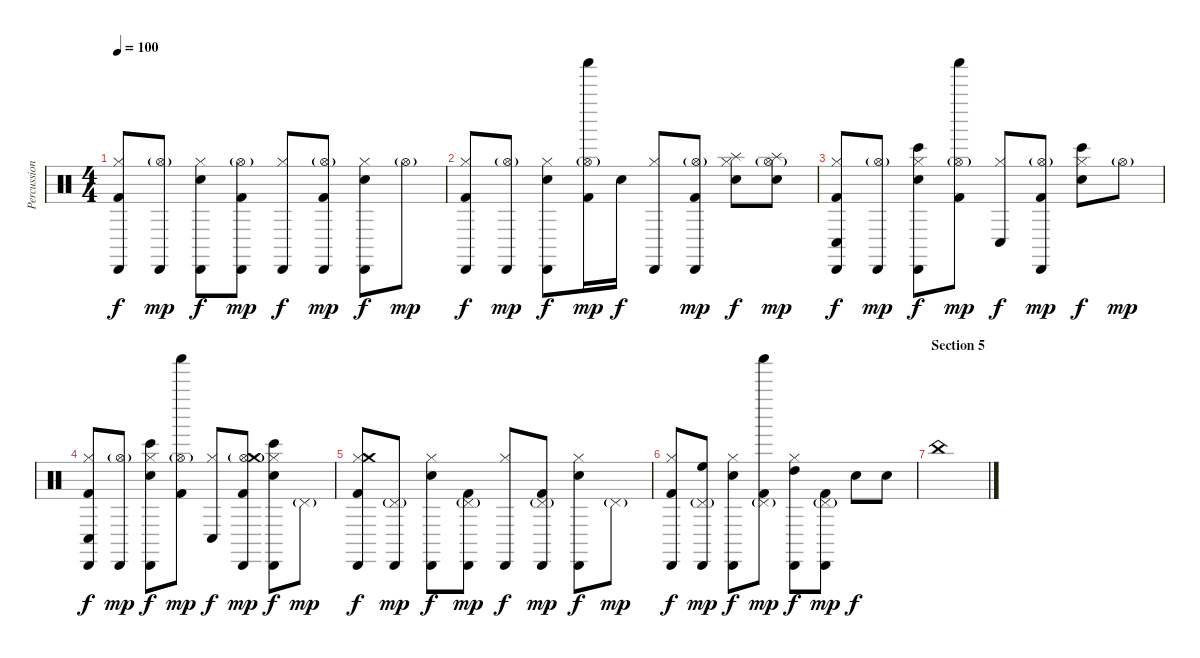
\track ("Percussion" "Percussion") {instrument percussion}
\staff {score}
\articulation defaults
\ts (4 4)
\tempo 100
\clef neutral
\ks c
("Hi-Hat (closed)" "Kick (hit) 2" "Cabasa (hit)").8{dy f} ("Hi-Hat (open)"{g} "Cabasa (hit)").8{dy mp} ("Hi-Hat (closed)" "Electric Snare (hit)" "Cabasa (hit)").8{dy f} ("Hi-Hat (open)"{g} "Kick (hit) 2" "Cabasa (hit)").8{dy mp} ("Hi-Hat (closed)" "Cabasa (hit)").8{dy f} ("Hi-Hat (open)"{g} "Kick (hit) 2" "Cabasa (hit)").8{dy mp} ("Hi-Hat (closed)" "Electric Snare (hit)" "Cabasa (hit)").8{dy f} "Hi-Hat (open)"{g}.8{dy mp} |
("Hi-Hat (closed)" "Kick (hit) 2" "Cabasa (hit)").8{dy f} ("Hi-Hat (open)"{g} "Cabasa (hit)").8{dy mp} ("Hi-Hat (closed)" "Electric Snare (hit)" "Cabasa (hit)").8{dy f} ("Hi-Hat (open)"{g} "Kick (hit) 2" "Shaker (hit)").16{dy mp} "Electric Snare (hit)".16{dy f} ("Hi-Hat (closed)" "Cabasa (hit)").8 ("Hi-Hat (open)"{g} "Kick (hit) 2" "Cabasa (hit)").8{dy mp} ("Hi-Hat (closed)" "Electric Snare (hit)" "Splash (hit)").8{dy f} ("Hi-Hat (open)"{g} "Electric Snare (hit)" "Splash (hit)").8{dy mp} |
("Hi-Hat (closed)" "Kick (hit) 2" "Conga low (hit)" "Cabasa (hit)").8{dy f} ("Hi-Hat (open)"{g} "Cabasa (hit)").8{dy mp} ("Hi-Hat (closed)" "Electric Snare (hit)" "Bongo High (hit)" "Cabasa (hit)").8{dy f} ("Hi-Hat (open)"{g} "Kick (hit) 2" "Shaker (hit)").8{dy mp} ("Hi-Hat (closed)" "Conga low (hit)").8{dy f} ("Hi-Hat (open)"{g} "Kick (hit) 2" "Cabasa (hit)").8{dy mp} ("Hi-Hat (closed)" "Electric Snare (hit)" "Bongo High (hit)").8{dy f} "Hi-Hat (open)"{g}.8{dy mp} |
("Hi-Hat (closed)" "Kick (hit) 2" "Conga low (hit)" "Cabasa (hit)").8{dy f} ("Hi-Hat (open)"{g} "Cabasa (hit)").8{dy mp} ("Hi-Hat (closed)" "Electric Snare (hit)" "Bongo High (hit)" "Cabasa (hit)").8{dy f} ("Hi-Hat (open)"{g} "Kick (hit) 2" "Shaker (hit)").8{dy mp} ("Hi-Hat (closed)" "Conga low (hit)").8{dy f} ("Hi-Hat (open)"{g} "Kick (hit) 2" "Cabasa (hit)" "Crash medium (hit)").8{dy mp} ("Hi-Hat (closed)" "Electric Snare (hit)" "Bongo High (hit)" "Cabasa (hit)").8{dy f} "Pedal Hi-Hat (hit)"{g}.8{dy mp} |
("Hi-Hat (closed)" "Kick (hit) 2" "Cabasa (hit)" "Crash medium (hit)").8{dy f} ("Pedal Hi-Hat (hit)"{g} "Cabasa (hit)").8{dy mp} ("Hi-Hat (closed)" "Electric Snare (hit)" "Cabasa (hit)").8{dy f} ("Pedal Hi-Hat (hit)"{g} "Kick (hit) 2" "Cabasa (hit)").8{dy mp} ("Hi-Hat (closed)" "Cabasa (hit)").8{dy f} ("Pedal Hi-Hat (hit)"{g} "Kick (hit) 2" "Cabasa (hit)").8{dy mp} ("Hi-Hat (closed)" "Electric Snare (hit)" "Cabasa (hit)").8{dy f} "Pedal Hi-Hat (hit)"{g}.8{dy mp} |
("Hi-Hat (closed)" "Kick (hit) 2" "Cabasa (hit)").8{dy f} ("Pedal Hi-Hat (hit)"{g} "High Floor Tom (hit)" "Cabasa (hit)").8{dy mp} ("Hi-Hat (closed)" "Electric Snare (hit)" "Cabasa (hit)").8{dy f} ("Pedal Hi-Hat (hit)"{g} "Kick (hit) 2" "Shaker (hit)").8{dy mp} ("Hi-Hat (closed)" "High Tom (hit)" "Cabasa (hit)").8{dy f} ("Pedal Hi-Hat (hit)"{g} "Kick (hit) 2" "Cabasa (hit)").8{dy mp} "Electric Snare (hit)".8{dy f} "Electric Snare (hit)".8 |
\section ("" "Section 5")
"China (hit)".1
